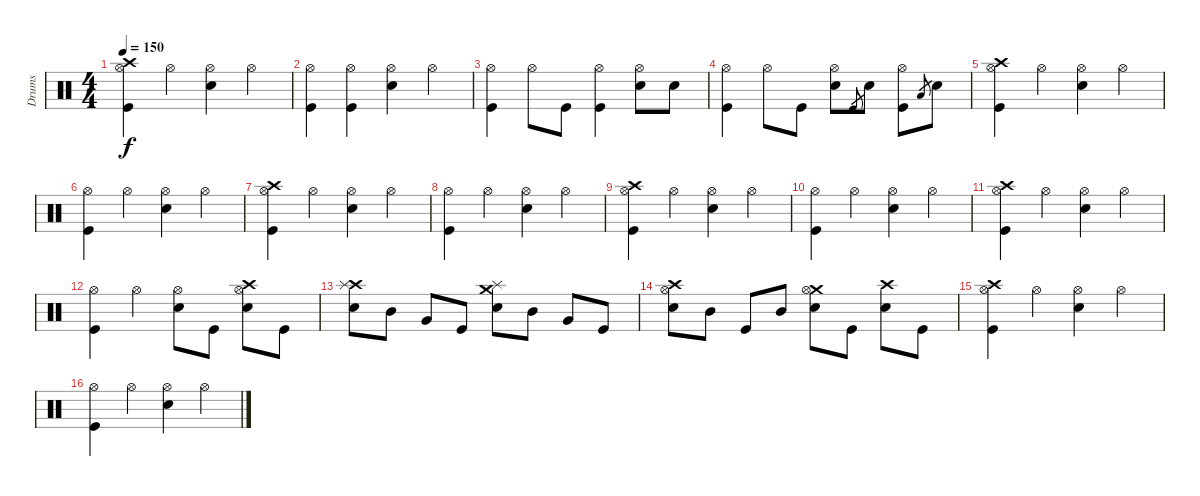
\track ("Drums" "Drums") {instrument percussion}
\staff {score}
\articulation defaults
\ts (4 4)
\tempo 150
\clef neutral
\ks c
("Crash high (hit)" "Hi-Hat (open)" "Kick (hit)").4{dy f} "Hi-Hat (open)".4 ("Hi-Hat (open)" "Electric Snare (hit)").4 "Hi-Hat (open)".4 |
("Hi-Hat (open)" "Kick (hit)").4 ("Hi-Hat (open)" "Kick (hit)").4 ("Hi-Hat (open)" "Electric Snare (hit)").4 "Hi-Hat (open)".4 |
("Hi-Hat (open)" "Kick (hit)").4 "Hi-Hat (open)".8 "Kick (hit)".8 ("Hi-Hat (open)" "Kick (hit)").4 ("Hi-Hat (open)" "Electric Snare (hit)").8 "Electric Snare (hit)".8 |
("Hi-Hat (open)" "Kick (hit)").4 "Hi-Hat (open)".8 "Kick (hit)".8 ("Hi-Hat (open)" "Electric Snare (hit)").8 "Kick (hit)".8{gr} "Electric Snare (hit)".8 ("Hi-Hat (open)" "Kick (hit)").8 "Low Floor Tom (hit)".8{gr} "Electric Snare (hit)".8 |
("Crash high (hit)" "Hi-Hat (open)" "Kick (hit)").4 "Hi-Hat (open)".4 ("Hi-Hat (open)" "Electric Snare (hit)").4 "Hi-Hat (open)".4 |
("Hi-Hat (open)" "Kick (hit)").4 "Hi-Hat (open)".4 ("Hi-Hat (open)" "Electric Snare (hit)").4 "Hi-Hat (open)".4 |
("Crash high (hit)" "Hi-Hat (open)" "Kick (hit)").4 "Hi-Hat (open)".4 ("Hi-Hat (open)" "Electric Snare (hit)").4 "Hi-Hat (open)".4 |
("Hi-Hat (open)" "Kick (hit)").4 "Hi-Hat (open)".4 ("Hi-Hat (open)" "Electric Snare (hit)").4 "Hi-Hat (open)".4 |
("Crash high (hit)" "Hi-Hat (open)" "Kick (hit)").4 "Hi-Hat (open)".4 ("Hi-Hat (open)" "Electric Snare (hit)").4 "Hi-Hat (open)".4 |
("Hi-Hat (open)" "Kick (hit)").4 "Hi-Hat (open)".4 ("Hi-Hat (open)" "Electric Snare (hit)").4 "Hi-Hat (open)".4 |
("Crash high (hit)" "Hi-Hat (open)" "Kick (hit)").4 "Hi-Hat (open)".4 ("Hi-Hat (open)" "Electric Snare (hit)").4 "Hi-Hat (open)".4 |
("Hi-Hat (open)" "Kick (hit)").4 "Hi-Hat (open)".4 ("Hi-Hat (open)" "Electric Snare (hit)").8 "Kick (hit)".8 ("Crash high (hit)" "Hi-Hat (open)" "Electric Snare (hit)").8 "Kick (hit)".8 |
("Crash high (hit)" "Splash (hit)" "Electric Snare (hit)").8 "Mid Tom (hit)".8 "Very Low Tom (hit)".8 "Kick (hit)".8 ("Crash medium (hit)" "Splash (hit)" "Electric Snare (hit)").8 "Mid Tom (hit)".8 "Very Low Tom (hit)".8 "Kick (hit)".8 |
("Hi-Hat (open)" "Crash high (hit)" "Electric Snare (hit)").8 "Mid Tom (hit)".8 "Kick (hit)".8 "Mid Tom (hit)".8 ("Crash medium (hit)" "Hi-Hat (open)" "Electric Snare (hit)").8 "Kick (hit)".8 ("Crash high (hit)" "Electric Snare (hit)").8 "Kick (hit)".8 |
("Crash high (hit)" "Hi-Hat (open)" "Kick (hit)").4 "Hi-Hat (open)".4 ("Hi-Hat (open)" "Electric Snare (hit)").4 "Hi-Hat (open)".4 |
("Hi-Hat (open)" "Kick (hit)").4 "Hi-Hat (open)".4 ("Hi-Hat (open)" "Electric Snare (hit)").4 "Hi-Hat (open)".4
